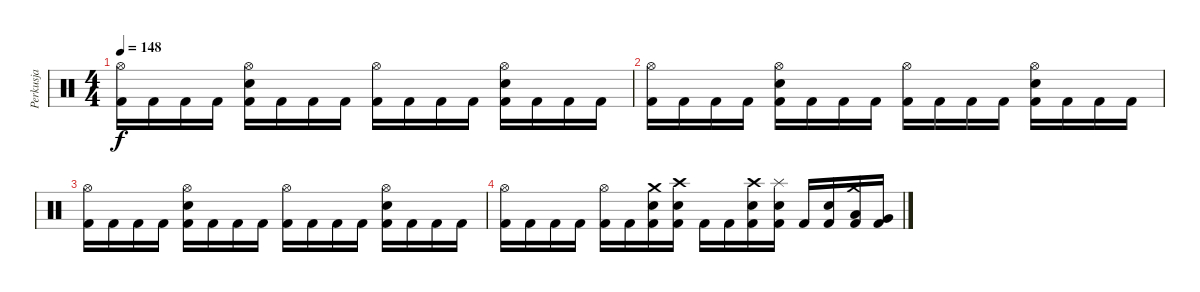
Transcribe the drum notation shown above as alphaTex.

\track ("Perkusja" "Perkusja") {instrument percussion}
\staff {score}
\articulation defaults
\ts (4 4)
\tempo 148
\clef neutral
\ks c
("Hi-Hat (open)" "Kick (hit) 2").16{dy f} "Kick (hit) 2".16 "Kick (hit) 2".16 "Kick (hit) 2".16 ("Hi-Hat (open)" "Electric Snare (hit)" "Kick (hit) 2").16 "Kick (hit) 2".16 "Kick (hit) 2".16 "Kick (hit) 2".16 ("Hi-Hat (open)" "Kick (hit) 2").16 "Kick (hit) 2".16 "Kick (hit) 2".16 "Kick (hit) 2".16 ("Hi-Hat (open)" "Electric Snare (hit)" "Kick (hit) 2").16 "Kick (hit) 2".16 "Kick (hit) 2".16 "Kick (hit) 2".16 |
("Hi-Hat (open)" "Kick (hit) 2").16 "Kick (hit) 2".16 "Kick (hit) 2".16 "Kick (hit) 2".16 ("Hi-Hat (open)" "Electric Snare (hit)" "Kick (hit) 2").16 "Kick (hit) 2".16 "Kick (hit) 2".16 "Kick (hit) 2".16 ("Hi-Hat (open)" "Kick (hit) 2").16 "Kick (hit) 2".16 "Kick (hit) 2".16 "Kick (hit) 2".16 ("Hi-Hat (open)" "Electric Snare (hit)" "Kick (hit) 2").16 "Kick (hit) 2".16 "Kick (hit) 2".16 "Kick (hit) 2".16 |
("Hi-Hat (open)" "Kick (hit) 2").16 "Kick (hit) 2".16 "Kick (hit) 2".16 "Kick (hit) 2".16 ("Hi-Hat (open)" "Electric Snare (hit)" "Kick (hit) 2").16 "Kick (hit) 2".16 "Kick (hit) 2".16 "Kick (hit) 2".16 ("Hi-Hat (open)" "Kick (hit) 2").16 "Kick (hit) 2".16 "Kick (hit) 2".16 "Kick (hit) 2".16 ("Hi-Hat (open)" "Electric Snare (hit)" "Kick (hit) 2").16 "Kick (hit) 2".16 "Kick (hit) 2".16 "Kick (hit) 2".16 |
("Hi-Hat (open)" "Kick (hit) 2").16 "Kick (hit) 2".16 "Kick (hit) 2".16 "Kick (hit) 2".16 ("Hi-Hat (open)" "Kick (hit) 2").16 "Kick (hit) 2".16 ("Crash medium (hit)" "Electric Snare (hit)" "Kick (hit) 2").16 ("Crash high (hit)" "Electric Snare (hit)" "Kick (hit) 2").16 "Kick (hit) 2".16 "Kick (hit) 2".16 ("Crash high (hit)" "Electric Snare (hit)" "Kick (hit) 2").16 ("Splash (hit)" "Electric Snare (hit)" "Kick (hit) 2").16 "Kick (hit) 2".16 ("Electric Snare (hit)" "Kick (hit) 2").16 ("Crash medium (hit)" "Low Tom (hit)" "Kick (hit) 2").16 ("Very Low Tom (hit)" "Kick (hit) 2").16
